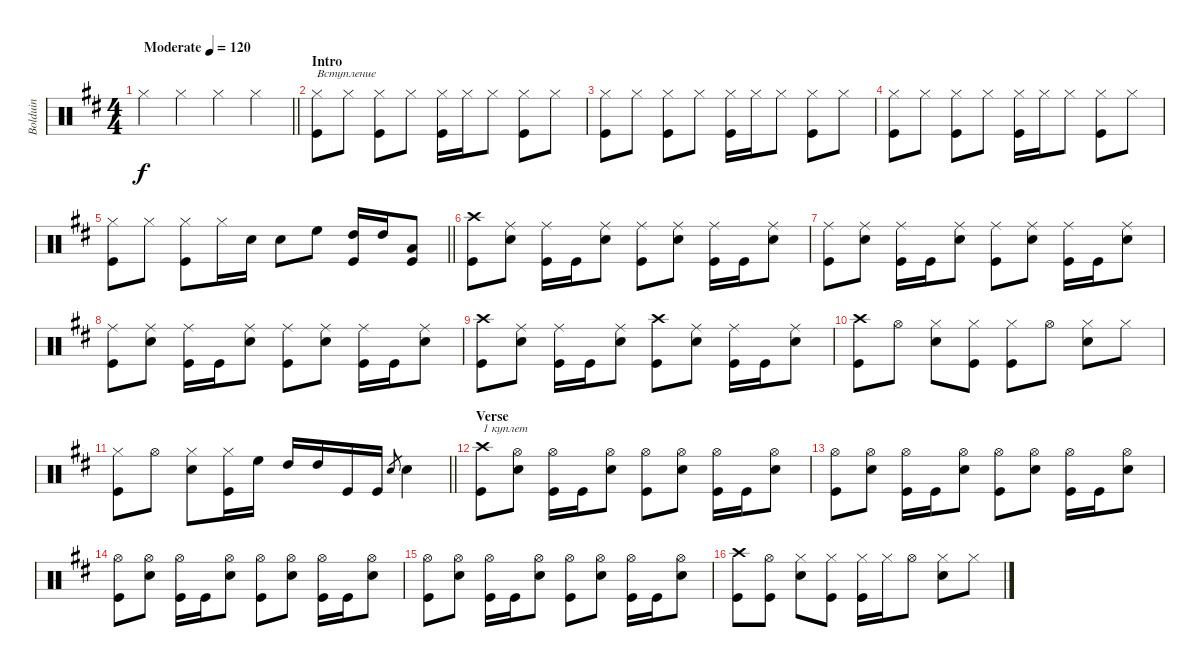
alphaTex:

\track ("Bolduin" "Bolduin") {instrument percussion}
\staff {score}
\articulation defaults
\ts (4 4)
\tempo (120 "Moderate")
\clef neutral
\barLineRight lightlight
\ks bminor "Hi-Hat (closed)".4{dy f} "Hi-Hat (closed)".4 "Hi-Hat (closed)".4 "Hi-Hat (closed)".4
|
\section ("" "Intro")
("Kick (hit)" "Hi-Hat (closed)").8{txt "Вступление"} "Hi-Hat (closed)".8 ("Kick (hit)" "Hi-Hat (closed)").8 "Hi-Hat (closed)".8 ("Kick (hit)" "Hi-Hat (closed)").16 "Hi-Hat (closed)".16 "Hi-Hat (closed)".8 ("Hi-Hat (closed)" "Kick (hit)").8 "Hi-Hat (closed)".8 |
("Kick (hit)" "Hi-Hat (closed)").8 "Hi-Hat (closed)".8 ("Kick (hit)" "Hi-Hat (closed)").8 "Hi-Hat (closed)".8 ("Hi-Hat (closed)" "Kick (hit)").16 "Hi-Hat (closed)".16 "Hi-Hat (closed)".8 ("Kick (hit)" "Hi-Hat (closed)").8 "Hi-Hat (closed)".8 |
("Kick (hit)" "Hi-Hat (closed)").8 "Hi-Hat (closed)".8 ("Kick (hit)" "Hi-Hat (closed)").8 "Hi-Hat (closed)".8 ("Kick (hit)" "Hi-Hat (closed)").16 "Hi-Hat (closed)".16 "Hi-Hat (closed)".8 ("Kick (hit)" "Hi-Hat (closed)").8 "Hi-Hat (closed)".8 |
\barLineRight lightlight
("Kick (hit)" "Hi-Hat (closed)").8 "Hi-Hat (closed)".8 ("Hi-Hat (closed)" "Kick (hit)").8 "Hi-Hat (closed)".16 "Snare (hit) 2".16 "Snare (hit) 2".8 "High Floor Tom (hit)".8 ("High Tom (hit)" "Kick (hit)").16 "High Tom (hit)".16 ("Low Tom (hit)" "Kick (hit)").8 |
("Kick (hit)" "Crash high (hit)").8 ("Snare (hit) 2" "Ride (middle)").8 ("Kick (hit)" "Ride (middle)").16 "Kick (hit)".16 ("Snare (hit) 2" "Ride (middle)").8 ("Kick (hit)" "Ride (middle)").8 ("Snare (hit) 2" "Ride (middle)").8 ("Kick (hit)" "Ride (middle)").16 "Kick (hit)".16 ("Snare (hit) 2" "Ride (middle)").8 |
("Kick (hit)" "Ride (middle)").8 ("Snare (hit) 2" "Ride (middle)").8 ("Kick (hit)" "Ride (middle)").16 "Kick (hit)".16 ("Snare (hit) 2" "Ride (middle)").8 ("Kick (hit)" "Ride (middle)").8 ("Snare (hit) 2" "Ride (middle)").8 ("Kick (hit)" "Ride (middle)").16 "Kick (hit)".16 ("Snare (hit) 2" "Ride (middle)").8 |
("Kick (hit)" "Ride (middle)").8 ("Snare (hit) 2" "Ride (middle)").8 ("Kick (hit)" "Ride (middle)").16 "Kick (hit)".16 ("Snare (hit) 2" "Ride (middle)").8 ("Kick (hit)" "Ride (middle)").8 ("Snare (hit) 2" "Ride (middle)").8 ("Kick (hit)" "Ride (middle)").16 "Kick (hit)".16 ("Snare (hit) 2" "Ride (middle)").8 |
("Kick (hit)" "Crash high (hit)").8 ("Snare (hit) 2" "Ride (middle)").8 ("Kick (hit)" "Ride (middle)").16 "Kick (hit)".16 ("Snare (hit) 2" "Ride (middle)").8 ("Kick (hit)" "Crash high (hit)").8 ("Snare (hit) 2" "Ride (middle)").8 ("Kick (hit)" "Ride (middle)").16 "Kick (hit)".16 ("Snare (hit) 2" "Ride (middle)").8 |
("Kick (hit)" "Crash high (hit)").8 "Hi-Hat (open)".8 ("Hi-Hat (closed)" "Snare (hit) 2").8 ("Hi-Hat (closed)" "Kick (hit)").8 ("Kick (hit)" "Hi-Hat (closed)").8 "Hi-Hat (open)".8 ("Hi-Hat (closed)" "Snare (hit) 2").8 "Hi-Hat (closed)".8 |
\barLineRight lightlight
("Kick (hit)" "Hi-Hat (closed)").8 "Hi-Hat (open)".8 ("Hi-Hat (closed)" "Snare (hit) 2").8 ("Hi-Hat (closed)" "Kick (hit)").16 "High Floor Tom (hit)".16 "High Tom (hit)".16 "High Tom (hit)".16 "Kick (hit)".16 "Kick (hit)".16 "Snare (hit) 2".8{gr} "Snare (hit) 2".4 |
\section ("" "Verse")
("Kick (hit)" "Crash high (hit)").8{txt "1 куплет"} ("Hi-Hat (open)" "Snare (hit) 2").8 ("Kick (hit)" "Hi-Hat (open)").16 "Kick (hit)".16 ("Snare (hit) 2" "Hi-Hat (open)").8 ("Kick (hit)" "Hi-Hat (open)").8 ("Hi-Hat (open)" "Snare (hit) 2").8 ("Kick (hit)" "Hi-Hat (open)").16 "Kick (hit)".16 ("Snare (hit) 2" "Hi-Hat (open)").8 |
("Kick (hit)" "Hi-Hat (open)").8 ("Hi-Hat (open)" "Snare (hit) 2").8 ("Kick (hit)" "Hi-Hat (open)").16 "Kick (hit)".16 ("Snare (hit) 2" "Hi-Hat (open)").8 ("Kick (hit)" "Hi-Hat (open)").8 ("Hi-Hat (open)" "Snare (hit) 2").8 ("Kick (hit)" "Hi-Hat (open)").16 "Kick (hit)".16 ("Hi-Hat (open)" "Snare (hit) 2").8 |
("Kick (hit)" "Hi-Hat (open)").8 ("Hi-Hat (open)" "Snare (hit) 2").8 ("Kick (hit)" "Hi-Hat (open)").16 "Kick (hit)".16 ("Snare (hit) 2" "Hi-Hat (open)").8 ("Kick (hit)" "Hi-Hat (open)").8 ("Hi-Hat (open)" "Snare (hit) 2").8 ("Kick (hit)" "Hi-Hat (open)").16 "Kick (hit)".16 ("Hi-Hat (open)" "Snare (hit) 2").8 |
("Kick (hit)" "Hi-Hat (open)").8 ("Snare (hit) 2" "Hi-Hat (open)").8 ("Kick (hit)" "Hi-Hat (open)").16 "Kick (hit)".16 ("Snare (hit) 2" "Hi-Hat (open)").8 ("Kick (hit)" "Hi-Hat (open)").8 ("Snare (hit) 2" "Hi-Hat (open)").8 ("Kick (hit)" "Hi-Hat (open)").16 "Kick (hit)".16 ("Snare (hit) 2" "Hi-Hat (open)").8 |
("Kick (hit)" "Crash high (hit)").8 ("Hi-Hat (open)" "Kick (hit)").8 ("Hi-Hat (closed)" "Snare (hit) 2").8 ("Hi-Hat (closed)" "Kick (hit)").8 ("Kick (hit)" "Hi-Hat (closed)").16 "Hi-Hat (closed)".16 "Hi-Hat (open)".8 ("Hi-Hat (closed)" "Snare (hit) 2").8 "Hi-Hat (closed)".8
